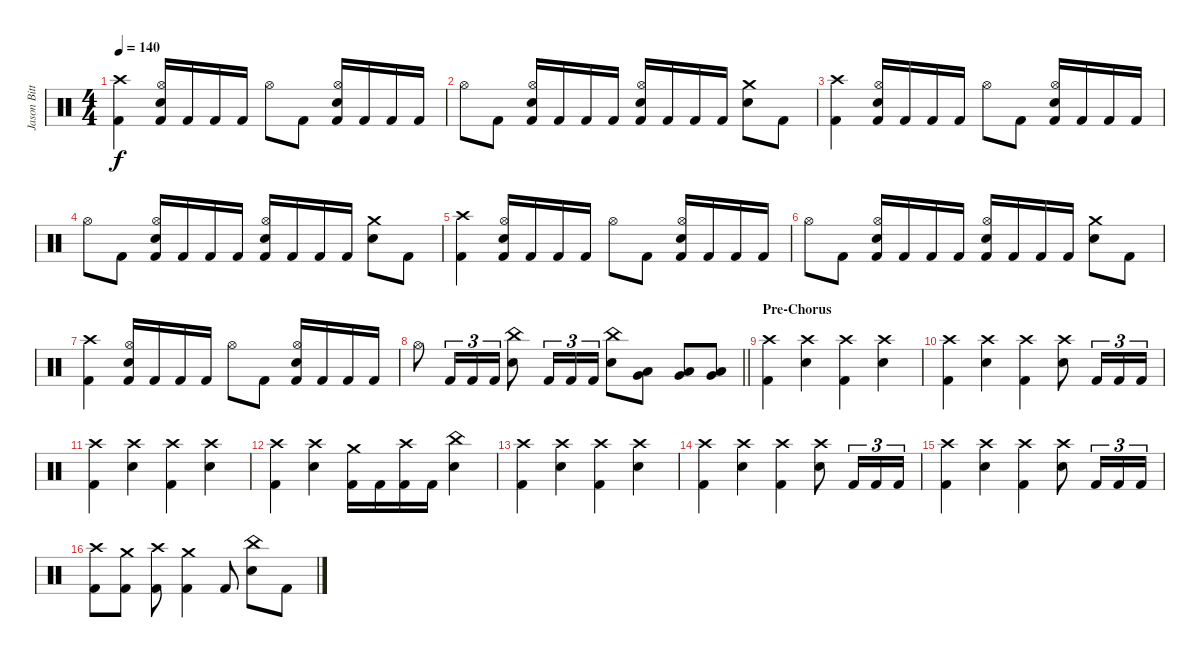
\track ("Jason Bittner" "Jason Bitt") {instrument percussion}
\staff {score}
\articulation defaults
\ts (4 4)
\tempo 140
\clef neutral
\ks c
("Crash high (hit)" "Kick (hit) 2").4{dy f} ("Hi-Hat (open)" "Electric Snare (hit)" "Kick (hit) 2").16 "Kick (hit) 2".16 "Kick (hit) 2".16 "Kick (hit) 2".16 "Hi-Hat (open)".8 "Kick (hit) 2".8 ("Hi-Hat (open)" "Electric Snare (hit)" "Kick (hit) 2").16 "Kick (hit) 2".16 "Kick (hit) 2".16 "Kick (hit) 2".16 |
"Hi-Hat (open)".8 "Kick (hit) 2".8 ("Hi-Hat (open)" "Electric Snare (hit)" "Kick (hit) 2").16 "Kick (hit) 2".16 "Kick (hit) 2".16 "Kick (hit) 2".16 ("Hi-Hat (open)" "Electric Snare (hit)" "Kick (hit) 2").16 "Kick (hit) 2".16 "Kick (hit) 2".16 "Kick (hit) 2".16 ("Crash medium (hit)" "Electric Snare (hit)").8 "Kick (hit) 2".8 |
("Crash high (hit)" "Kick (hit) 2").4 ("Hi-Hat (open)" "Electric Snare (hit)" "Kick (hit) 2").16 "Kick (hit) 2".16 "Kick (hit) 2".16 "Kick (hit) 2".16 "Hi-Hat (open)".8 "Kick (hit) 2".8 ("Hi-Hat (open)" "Electric Snare (hit)" "Kick (hit) 2").16 "Kick (hit) 2".16 "Kick (hit) 2".16 "Kick (hit) 2".16 |
"Hi-Hat (open)".8 "Kick (hit) 2".8 ("Hi-Hat (open)" "Electric Snare (hit)" "Kick (hit) 2").16 "Kick (hit) 2".16 "Kick (hit) 2".16 "Kick (hit) 2".16 ("Hi-Hat (open)" "Electric Snare (hit)" "Kick (hit) 2").16 "Kick (hit) 2".16 "Kick (hit) 2".16 "Kick (hit) 2".16 ("Crash medium (hit)" "Electric Snare (hit)").8 "Kick (hit) 2".8 |
("Crash high (hit)" "Kick (hit) 2").4 ("Hi-Hat (open)" "Electric Snare (hit)" "Kick (hit) 2").16 "Kick (hit) 2".16 "Kick (hit) 2".16 "Kick (hit) 2".16 "Hi-Hat (open)".8 "Kick (hit) 2".8 ("Hi-Hat (open)" "Electric Snare (hit)" "Kick (hit) 2").16 "Kick (hit) 2".16 "Kick (hit) 2".16 "Kick (hit) 2".16 |
"Hi-Hat (open)".8 "Kick (hit) 2".8 ("Hi-Hat (open)" "Electric Snare (hit)" "Kick (hit) 2").16 "Kick (hit) 2".16 "Kick (hit) 2".16 "Kick (hit) 2".16 ("Hi-Hat (open)" "Electric Snare (hit)" "Kick (hit) 2").16 "Kick (hit) 2".16 "Kick (hit) 2".16 "Kick (hit) 2".16 ("Crash medium (hit)" "Electric Snare (hit)").8 "Kick (hit) 2".8 |
("Crash high (hit)" "Kick (hit) 2").4 ("Hi-Hat (open)" "Electric Snare (hit)" "Kick (hit) 2").16 "Kick (hit) 2".16 "Kick (hit) 2".16 "Kick (hit) 2".16 "Hi-Hat (open)".8 "Kick (hit) 2".8 ("Hi-Hat (open)" "Electric Snare (hit)" "Kick (hit) 2").16 "Kick (hit) 2".16 "Kick (hit) 2".16 "Kick (hit) 2".16 |
\barLineRight lightlight "Hi-Hat (open)".8 "Kick (hit) 2".16{tu (3 2)} "Kick (hit) 2".16{tu (3 2)} "Kick (hit) 2".16{tu (3 2)}
("China (hit)" "Electric Snare (hit)").8 "Kick (hit) 2".16{tu (3 2)} "Kick (hit) 2".16{tu (3 2)} "Kick (hit) 2".16{tu (3 2)} ("China (hit)" "Electric Snare (hit)").8 ("Low Tom (hit)" "Very Low Tom (hit)").8 ("Low Tom (hit)" "Very Low Tom (hit)").8 ("Low Tom (hit)" "Very Low Tom (hit)").8 |
\section ("" "Pre-Chorus")
("Crash high (hit)" "Kick (hit) 2").4 ("Crash high (hit)" "Electric Snare (hit)").4 ("Crash high (hit)" "Kick (hit) 2").4 ("Crash high (hit)" "Electric Snare (hit)").4 |
("Crash high (hit)" "Kick (hit) 2").4 ("Crash high (hit)" "Electric Snare (hit)").4 ("Crash high (hit)" "Kick (hit) 2").4 ("Crash high (hit)" "Electric Snare (hit)").8 "Kick (hit) 2".16{tu (3 2)} "Kick (hit) 2".16{tu (3 2)} "Kick (hit) 2".16{tu (3 2)} |
("Crash high (hit)" "Kick (hit) 2").4 ("Crash high (hit)" "Electric Snare (hit)").4 ("Crash high (hit)" "Kick (hit) 2").4 ("Crash high (hit)" "Electric Snare (hit)").4 |
("Crash high (hit)" "Kick (hit) 2").4 ("Crash high (hit)" "Electric Snare (hit)").4 ("Crash medium (hit)" "Kick (hit) 2").16 "Kick (hit) 2".16 ("Crash high (hit)" "Kick (hit) 2").16 "Kick (hit) 2".16 ("China (hit)" "Electric Snare (hit)").4 |
("Crash high (hit)" "Kick (hit) 2").4 ("Crash high (hit)" "Electric Snare (hit)").4 ("Crash high (hit)" "Kick (hit) 2").4 ("Crash high (hit)" "Electric Snare (hit)").4 |
("Crash high (hit)" "Kick (hit) 2").4 ("Crash high (hit)" "Electric Snare (hit)").4 ("Crash high (hit)" "Kick (hit) 2").4 ("Crash high (hit)" "Electric Snare (hit)").8 "Kick (hit) 2".16{tu (3 2)} "Kick (hit) 2".16{tu (3 2)} "Kick (hit) 2".16{tu (3 2)} |
("Crash high (hit)" "Kick (hit) 2").4 ("Crash high (hit)" "Electric Snare (hit)").4 ("Crash high (hit)" "Kick (hit) 2").4 ("Crash high (hit)" "Electric Snare (hit)").8 "Kick (hit) 2".16{tu (3 2)} "Kick (hit) 2".16{tu (3 2)} "Kick (hit) 2".16{tu (3 2)} |
("Crash high (hit)" "Kick (hit) 2").8 ("Crash medium (hit)" "Kick (hit) 2").8 ("Crash high (hit)" "Kick (hit) 2").8 ("Crash medium (hit)" "Kick (hit) 2").4 "Kick (hit) 2".8 ("China (hit)" "Electric Snare (hit)").8 "Kick (hit) 2".8
